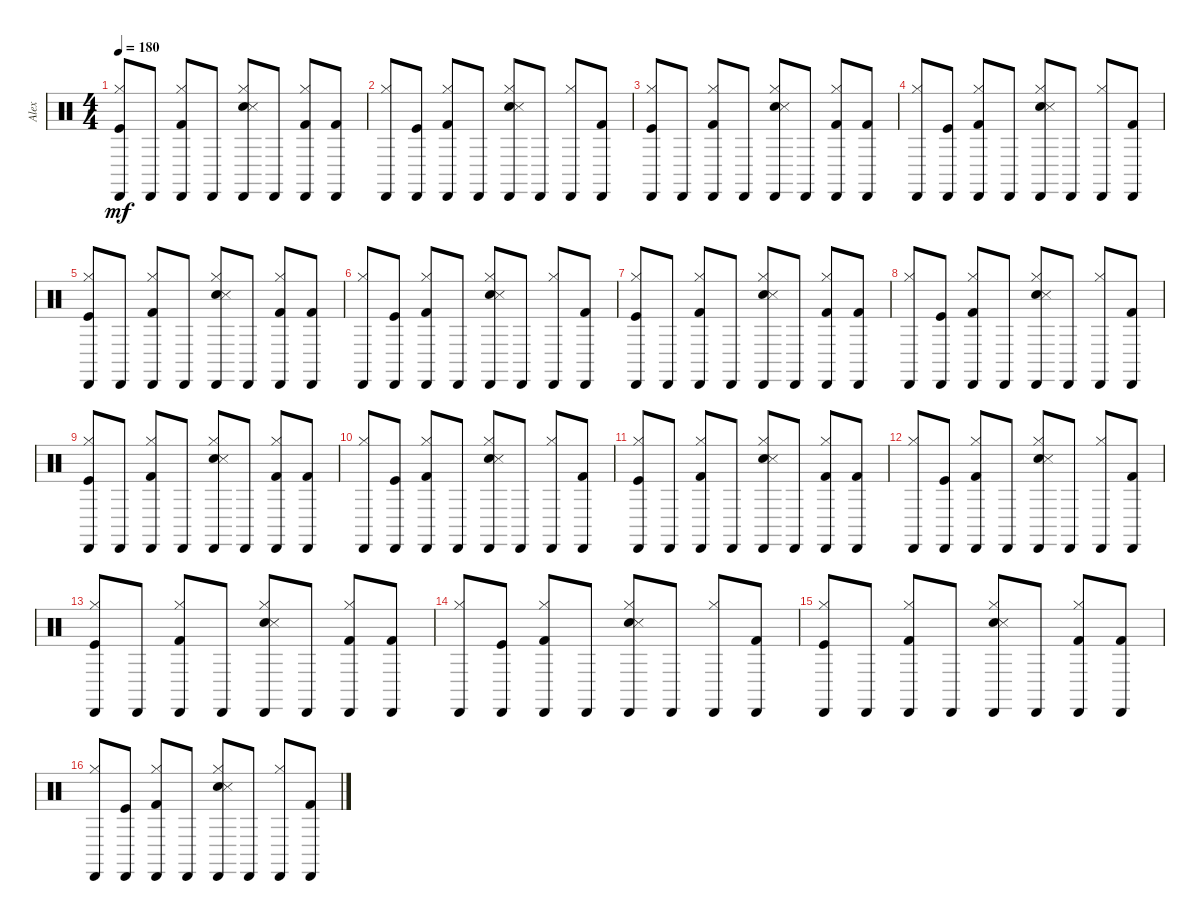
\track ("Alex" "Alex") {instrument percussion}
\staff {score}
\articulation defaults
\ts (4 4)
\tempo 180
\clef neutral
\ks c
("Hi-Hat (closed)" "Kick (hit)" "Cabasa (hit)").8{dy mf} "Cabasa (hit)".8 ("Hi-Hat (closed)" "Kick (hit) 2" "Cabasa (hit)").8 "Cabasa (hit)".8 ("Hi-Hat (closed)" "Hand Clap (hit)" "Snare (side stick) 3" "Cabasa (hit)").8 "Cabasa (hit)".8 ("Hi-Hat (closed)" "Kick (hit) 2" "Cabasa (hit)").8 ("Kick (hit) 2" "Cabasa (hit)").8 |
("Hi-Hat (closed)" "Cabasa (hit)").8 ("Kick (hit)" "Cabasa (hit)").8 ("Hi-Hat (closed)" "Kick (hit) 2" "Cabasa (hit)").8 "Cabasa (hit)".8 ("Hi-Hat (closed)" "Hand Clap (hit)" "Snare (side stick) 3" "Cabasa (hit)").8 "Cabasa (hit)".8 ("Hi-Hat (closed)" "Cabasa (hit)").8 ("Kick (hit) 2" "Cabasa (hit)").8 |
("Hi-Hat (closed)" "Kick (hit)" "Cabasa (hit)").8 "Cabasa (hit)".8 ("Hi-Hat (closed)" "Kick (hit) 2" "Cabasa (hit)").8 "Cabasa (hit)".8 ("Hi-Hat (closed)" "Hand Clap (hit)" "Snare (side stick) 3" "Cabasa (hit)").8 "Cabasa (hit)".8 ("Hi-Hat (closed)" "Kick (hit) 2" "Cabasa (hit)").8 ("Kick (hit) 2" "Cabasa (hit)").8 |
("Hi-Hat (closed)" "Cabasa (hit)").8 ("Kick (hit)" "Cabasa (hit)").8 ("Hi-Hat (closed)" "Kick (hit) 2" "Cabasa (hit)").8 "Cabasa (hit)".8 ("Hi-Hat (closed)" "Hand Clap (hit)" "Snare (side stick) 3" "Cabasa (hit)").8 "Cabasa (hit)".8 ("Hi-Hat (closed)" "Cabasa (hit)").8 ("Kick (hit) 2" "Cabasa (hit)").8 |
("Hi-Hat (closed)" "Kick (hit)" "Cabasa (hit)").8 "Cabasa (hit)".8 ("Hi-Hat (closed)" "Kick (hit) 2" "Cabasa (hit)").8 "Cabasa (hit)".8 ("Hi-Hat (closed)" "Hand Clap (hit)" "Snare (side stick) 3" "Cabasa (hit)").8 "Cabasa (hit)".8 ("Hi-Hat (closed)" "Kick (hit) 2" "Cabasa (hit)").8 ("Kick (hit) 2" "Cabasa (hit)").8 |
("Hi-Hat (closed)" "Cabasa (hit)").8 ("Kick (hit)" "Cabasa (hit)").8 ("Hi-Hat (closed)" "Kick (hit) 2" "Cabasa (hit)").8 "Cabasa (hit)".8 ("Hi-Hat (closed)" "Hand Clap (hit)" "Snare (side stick) 3" "Cabasa (hit)").8 "Cabasa (hit)".8 ("Hi-Hat (closed)" "Cabasa (hit)").8 ("Kick (hit) 2" "Cabasa (hit)").8 |
("Hi-Hat (closed)" "Kick (hit)" "Cabasa (hit)").8 "Cabasa (hit)".8 ("Hi-Hat (closed)" "Kick (hit) 2" "Cabasa (hit)").8 "Cabasa (hit)".8 ("Hi-Hat (closed)" "Hand Clap (hit)" "Snare (side stick) 3" "Cabasa (hit)").8 "Cabasa (hit)".8 ("Hi-Hat (closed)" "Kick (hit) 2" "Cabasa (hit)").8 ("Kick (hit) 2" "Cabasa (hit)").8 |
("Hi-Hat (closed)" "Cabasa (hit)").8 ("Kick (hit)" "Cabasa (hit)").8 ("Hi-Hat (closed)" "Kick (hit) 2" "Cabasa (hit)").8 "Cabasa (hit)".8 ("Hi-Hat (closed)" "Hand Clap (hit)" "Snare (side stick) 3" "Cabasa (hit)").8 "Cabasa (hit)".8 ("Hi-Hat (closed)" "Cabasa (hit)").8 ("Kick (hit) 2" "Cabasa (hit)").8 |
("Hi-Hat (closed)" "Kick (hit)" "Cabasa (hit)").8 "Cabasa (hit)".8 ("Hi-Hat (closed)" "Kick (hit) 2" "Cabasa (hit)").8 "Cabasa (hit)".8 ("Hi-Hat (closed)" "Hand Clap (hit)" "Snare (side stick) 3" "Cabasa (hit)").8 "Cabasa (hit)".8 ("Hi-Hat (closed)" "Kick (hit) 2" "Cabasa (hit)").8 ("Kick (hit) 2" "Cabasa (hit)").8 |
("Hi-Hat (closed)" "Cabasa (hit)").8 ("Kick (hit)" "Cabasa (hit)").8 ("Hi-Hat (closed)" "Kick (hit) 2" "Cabasa (hit)").8 "Cabasa (hit)".8 ("Hi-Hat (closed)" "Hand Clap (hit)" "Snare (side stick) 3" "Cabasa (hit)").8 "Cabasa (hit)".8 ("Hi-Hat (closed)" "Cabasa (hit)").8 ("Kick (hit) 2" "Cabasa (hit)").8 |
("Hi-Hat (closed)" "Kick (hit)" "Cabasa (hit)").8 "Cabasa (hit)".8 ("Hi-Hat (closed)" "Kick (hit) 2" "Cabasa (hit)").8 "Cabasa (hit)".8 ("Hi-Hat (closed)" "Hand Clap (hit)" "Snare (side stick) 3" "Cabasa (hit)").8 "Cabasa (hit)".8 ("Hi-Hat (closed)" "Kick (hit) 2" "Cabasa (hit)").8 ("Kick (hit) 2" "Cabasa (hit)").8 |
("Hi-Hat (closed)" "Cabasa (hit)").8 ("Kick (hit)" "Cabasa (hit)").8 ("Hi-Hat (closed)" "Kick (hit) 2" "Cabasa (hit)").8 "Cabasa (hit)".8 ("Hi-Hat (closed)" "Hand Clap (hit)" "Snare (side stick) 3" "Cabasa (hit)").8 "Cabasa (hit)".8 ("Hi-Hat (closed)" "Cabasa (hit)").8 ("Kick (hit) 2" "Cabasa (hit)").8 |
("Hi-Hat (closed)" "Kick (hit)" "Cabasa (hit)").8 "Cabasa (hit)".8 ("Hi-Hat (closed)" "Kick (hit) 2" "Cabasa (hit)").8 "Cabasa (hit)".8 ("Hi-Hat (closed)" "Hand Clap (hit)" "Snare (side stick) 3" "Cabasa (hit)").8 "Cabasa (hit)".8 ("Hi-Hat (closed)" "Kick (hit) 2" "Cabasa (hit)").8 ("Kick (hit) 2" "Cabasa (hit)").8 |
("Hi-Hat (closed)" "Cabasa (hit)").8 ("Kick (hit)" "Cabasa (hit)").8 ("Hi-Hat (closed)" "Kick (hit) 2" "Cabasa (hit)").8 "Cabasa (hit)".8 ("Hi-Hat (closed)" "Hand Clap (hit)" "Snare (side stick) 3" "Cabasa (hit)").8 "Cabasa (hit)".8 ("Hi-Hat (closed)" "Cabasa (hit)").8 ("Kick (hit) 2" "Cabasa (hit)").8 |
("Hi-Hat (closed)" "Kick (hit)" "Cabasa (hit)").8 "Cabasa (hit)".8 ("Hi-Hat (closed)" "Kick (hit) 2" "Cabasa (hit)").8 "Cabasa (hit)".8 ("Hi-Hat (closed)" "Hand Clap (hit)" "Snare (side stick) 3" "Cabasa (hit)").8 "Cabasa (hit)".8 ("Hi-Hat (closed)" "Kick (hit) 2" "Cabasa (hit)").8 ("Kick (hit) 2" "Cabasa (hit)").8 |
("Hi-Hat (closed)" "Cabasa (hit)").8 ("Kick (hit)" "Cabasa (hit)").8 ("Hi-Hat (closed)" "Kick (hit) 2" "Cabasa (hit)").8 "Cabasa (hit)".8 ("Hi-Hat (closed)" "Hand Clap (hit)" "Snare (side stick) 3" "Cabasa (hit)").8 "Cabasa (hit)".8 ("Hi-Hat (closed)" "Cabasa (hit)").8 ("Kick (hit) 2" "Cabasa (hit)").8
